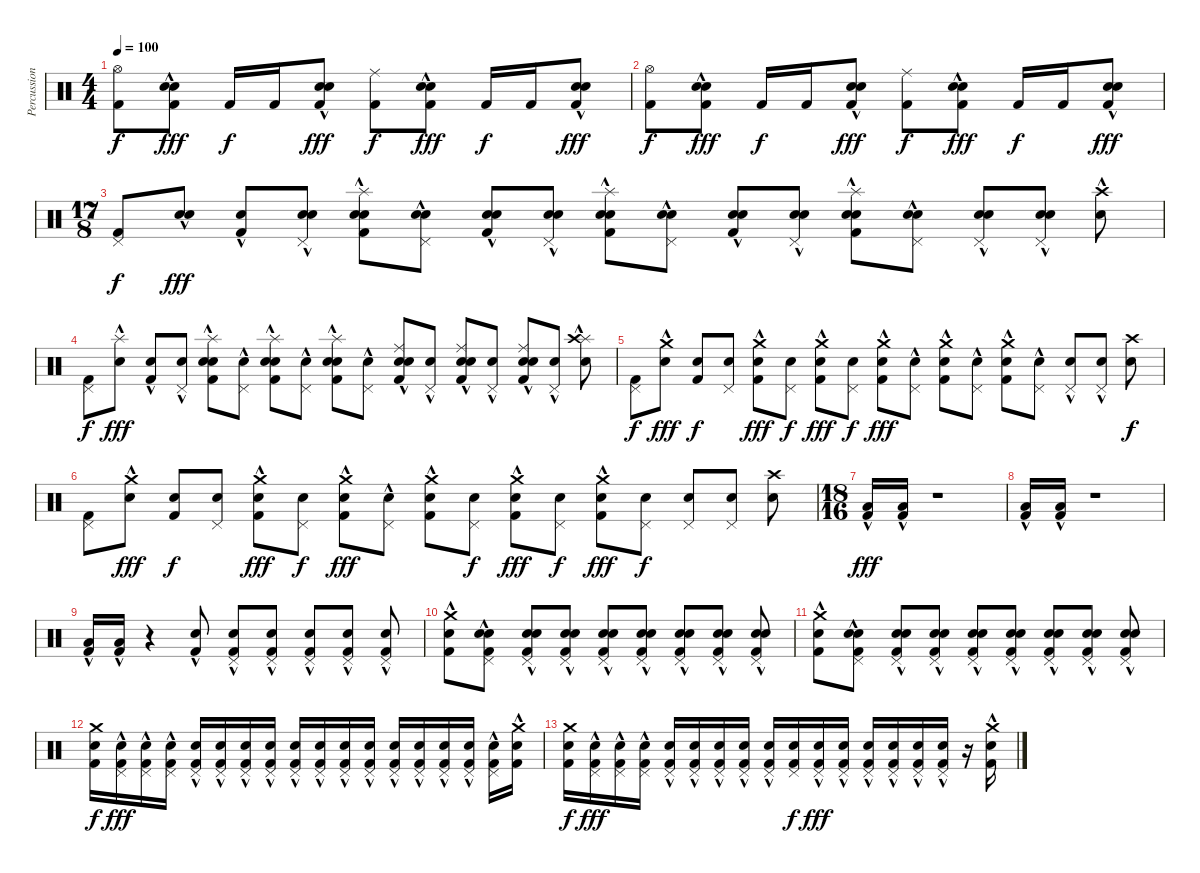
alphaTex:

\track ("Percussion" "Percussion") {instrument percussion}
\staff {score}
\articulation defaults
\ts (4 4)
\tempo 100
\clef neutral
\ks c
("Hi-Hat (open)" "Kick (hit) 2").8{dy f} ("Electric Snare (hit)"{hac} "Snare (hit) 2"{hac} "Kick (hit) 2").8{dy fff} "Kick (hit) 2".16{dy f} "Kick (hit) 2".16 ("Electric Snare (hit)"{hac} "Snare (hit) 2"{hac} "Kick (hit) 2").8{dy fff} ("Ride (middle)" "Kick (hit) 2").8{dy f} ("Electric Snare (hit)"{hac} "Snare (hit) 2"{hac} "Kick (hit) 2").8{dy fff} "Kick (hit) 2".16{dy f} "Kick (hit) 2".16 ("Electric Snare (hit)"{hac} "Snare (hit) 2"{hac} "Kick (hit) 2").8{dy fff} |
("Hi-Hat (open)" "Kick (hit) 2").8{dy f} ("Electric Snare (hit)"{hac} "Snare (hit) 2"{hac} "Kick (hit) 2").8{dy fff} "Kick (hit) 2".16{dy f} "Kick (hit) 2".16 ("Electric Snare (hit)"{hac} "Snare (hit) 2"{hac} "Kick (hit) 2").8{dy fff} ("Ride (middle)" "Kick (hit) 2").8{dy f} ("Electric Snare (hit)"{hac} "Snare (hit) 2"{hac} "Kick (hit) 2").8{dy fff} "Kick (hit) 2".16{dy f} "Kick (hit) 2".16 ("Electric Snare (hit)"{hac} "Snare (hit) 2"{hac} "Kick (hit) 2").8{dy fff} |
\ts (17 8)
("Pedal Hi-Hat (hit)" "Kick (hit) 2").8{dy f} ("Electric Snare (hit)"{hac} "Snare (hit) 2"{hac}).8{dy fff} ("Kick (hit) 2" "Snare (hit) 2"{hac}).8 ("Electric Snare (hit)"{hac} "Pedal Hi-Hat (hit)" "Snare (hit) 2"{hac}).8 ("Electric Snare (hit)"{hac} "Splash (hit)" "Kick (hit) 2" "Snare (hit) 2"{hac}).8 ("Pedal Hi-Hat (hit)" "Electric Snare (hit)"{hac} "Snare (hit) 2"{hac}).8 ("Electric Snare (hit)"{hac} "Kick (hit) 2" "Snare (hit) 2"{hac}).8 ("Pedal Hi-Hat (hit)" "Electric Snare (hit)"{hac} "Snare (hit) 2"{hac}).8 ("Electric Snare (hit)"{hac} "Splash (hit)" "Kick (hit) 2" "Snare (hit) 2"{hac}).8 ("Pedal Hi-Hat (hit)" "Electric Snare (hit)"{hac} "Snare (hit) 2"{hac}).8 ("Electric Snare (hit)"{hac} "Kick (hit) 2" "Snare (hit) 2"{hac}).8 ("Pedal Hi-Hat (hit)" "Electric Snare (hit)"{hac} "Snare (hit) 2"{hac}).8 ("Electric Snare (hit)"{hac} "Splash (hit)" "Kick (hit) 2" "Snare (hit) 2"{hac}).8 ("Pedal Hi-Hat (hit)" "Electric Snare (hit)"{hac} "Snare (hit) 2"{hac}).8 ("Pedal Hi-Hat (hit)" "Electric Snare (hit)" "Snare (hit) 2"{hac}).8 ("Pedal Hi-Hat (hit)" "Electric Snare (hit)"{hac} "Snare (hit) 2"{hac}).8 ("Crash high (hit)" "Snare (hit) 2"{hac}).8 |
("Pedal Hi-Hat (hit)" "Kick (hit) 2").8{dy f} ("Splash (hit)" "Snare (hit) 2"{hac}).8{dy fff} ("Kick (hit) 2" "Snare (hit) 2"{hac}).8 ("Pedal Hi-Hat (hit)" "Snare (hit) 2"{hac}).8 ("Electric Snare (hit)" "Splash (hit)" "Kick (hit) 2" "Snare (hit) 2"{hac}).8 ("Pedal Hi-Hat (hit)" "Snare (hit) 2"{hac}).8 ("Electric Snare (hit)" "Splash (hit)" "Kick (hit) 2" "Snare (hit) 2"{hac}).8 ("Pedal Hi-Hat (hit)" "Snare (hit) 2"{hac}).8 ("Electric Snare (hit)" "Splash (hit)" "Kick (hit) 2" "Snare (hit) 2"{hac}).8 ("Pedal Hi-Hat (hit)" "Snare (hit) 2"{hac}).8 ("Electric Snare (hit)" "Ride (middle)" "Kick (hit) 2" "Snare (hit) 2"{hac}).8 ("Pedal Hi-Hat (hit)" "Snare (hit) 2"{hac}).8 ("Electric Snare (hit)" "Ride (middle)" "Kick (hit) 2" "Snare (hit) 2"{hac}).8 ("Pedal Hi-Hat (hit)" "Snare (hit) 2"{hac}).8 ("Kick (hit) 2" "Ride (middle)" "Electric Snare (hit)" "Snare (hit) 2"{hac}).8 ("Pedal Hi-Hat (hit)" "Snare (hit) 2"{hac}).8 ("Splash (hit)" "Crash high (hit)" "Snare (hit) 2"{hac}).8 |
("Pedal Hi-Hat (hit)" "Kick (hit) 2").8{dy f} ("Crash medium (hit)"{hac} "Snare (hit) 2").8{dy fff} ("Kick (hit) 2" "Snare (hit) 2").8{dy f} ("Pedal Hi-Hat (hit)" "Snare (hit) 2").8 ("Crash medium (hit)"{hac} "Kick (hit) 2" "Snare (hit) 2").8{dy fff} ("Pedal Hi-Hat (hit)" "Snare (hit) 2").8{dy f} ("Crash medium (hit)"{hac} "Kick (hit) 2" "Snare (hit) 2").8{dy fff} ("Pedal Hi-Hat (hit)" "Snare (hit) 2").8{dy f} ("Crash medium (hit)"{hac} "Kick (hit) 2" "Snare (hit) 2").8{dy fff} ("Pedal Hi-Hat (hit)"{hac} "Snare (hit) 2").8 ("Crash medium (hit)"{hac} "Kick (hit) 2" "Snare (hit) 2").8 ("Pedal Hi-Hat (hit)"{hac} "Snare (hit) 2").8 ("Crash medium (hit)"{hac} "Kick (hit) 2" "Snare (hit) 2").8 ("Pedal Hi-Hat (hit)"{hac} "Snare (hit) 2").8 ("Pedal Hi-Hat (hit)"{hac} "Snare (hit) 2").8 ("Pedal Hi-Hat (hit)"{hac} "Snare (hit) 2").8 ("Crash high (hit)" "Snare (hit) 2").8{dy f} |
("Pedal Hi-Hat (hit)" "Kick (hit) 2").8 ("Crash medium (hit)"{hac} "Snare (hit) 2").8{dy fff} ("Kick (hit) 2" "Snare (hit) 2").8{dy f} ("Pedal Hi-Hat (hit)" "Snare (hit) 2").8 ("Crash medium (hit)"{hac} "Kick (hit) 2" "Snare (hit) 2").8{dy fff} ("Pedal Hi-Hat (hit)" "Snare (hit) 2").8{dy f} ("Crash medium (hit)"{hac} "Kick (hit) 2" "Snare (hit) 2").8{dy fff} ("Pedal Hi-Hat (hit)"{hac} "Snare (hit) 2").8 ("Crash medium (hit)"{hac} "Kick (hit) 2" "Snare (hit) 2").8 ("Pedal Hi-Hat (hit)" "Snare (hit) 2").8{dy f} ("Crash medium (hit)"{hac} "Kick (hit) 2" "Snare (hit) 2").8{dy fff} ("Pedal Hi-Hat (hit)" "Snare (hit) 2").8{dy f} ("Crash medium (hit)"{hac} "Kick (hit) 2" "Snare (hit) 2").8{dy fff} ("Pedal Hi-Hat (hit)" "Snare (hit) 2").8{dy f} ("Pedal Hi-Hat (hit)" "Snare (hit) 2").8 ("Pedal Hi-Hat (hit)" "Snare (hit) 2").8 ("Crash high (hit)" "Snare (hit) 2").8 |
\ts (18 16)
("Low Tom (hit)"{hac} "Kick (hit) 2"{hac}).16{dy fff} ("Low Tom (hit)"{hac} "Kick (hit) 2"{hac}).16 r.1 |
("Low Tom (hit)"{hac} "Kick (hit) 2"{hac}).16 ("Low Tom (hit)"{hac} "Kick (hit) 2"{hac}).16 r.1 |
("Low Tom (hit)"{hac} "Kick (hit) 2"{hac}).16 ("Low Tom (hit)"{hac} "Kick (hit) 2"{hac}).16 r.4 ("Snare (hit) 2"{hac} "Kick (hit) 2"{hac}).8 ("Pedal Hi-Hat (hit)"{hac} "Snare (hit) 2"{hac} "Kick (hit) 2"{hac}).8 ("Pedal Hi-Hat (hit)"{hac} "Snare (hit) 2"{hac} "Kick (hit) 2"{hac}).8 ("Pedal Hi-Hat (hit)"{hac} "Snare (hit) 2"{hac} "Kick (hit) 2"{hac}).8 ("Pedal Hi-Hat (hit)"{hac} "Snare (hit) 2"{hac} "Kick (hit) 2"{hac}).8 ("Pedal Hi-Hat (hit)"{hac} "Snare (hit) 2"{hac} "Kick (hit) 2"{hac}).8 |
("Crash medium (hit)" "Electric Snare (hit)"{hac} "Kick (hit) 2").8 ("Electric Snare (hit)"{hac} "Pedal Hi-Hat (hit)" "Snare (hit) 2"{hac} "Kick (hit) 2").8 ("Electric Snare (hit)"{hac} "Pedal Hi-Hat (hit)" "Snare (hit) 2"{hac} "Kick (hit) 2").8 ("Electric Snare (hit)"{hac} "Pedal Hi-Hat (hit)" "Snare (hit) 2"{hac} "Kick (hit) 2").8 ("Electric Snare (hit)"{hac} "Pedal Hi-Hat (hit)" "Snare (hit) 2"{hac} "Kick (hit) 2").8 ("Electric Snare (hit)"{hac} "Pedal Hi-Hat (hit)" "Snare (hit) 2"{hac} "Kick (hit) 2").8 ("Electric Snare (hit)"{hac} "Pedal Hi-Hat (hit)" "Snare (hit) 2"{hac} "Kick (hit) 2").8 ("Electric Snare (hit)"{hac} "Pedal Hi-Hat (hit)" "Snare (hit) 2"{hac} "Kick (hit) 2").8 ("Electric Snare (hit)"{hac} "Pedal Hi-Hat (hit)" "Snare (hit) 2"{hac} "Kick (hit) 2").8 |
("Crash medium (hit)" "Electric Snare (hit)"{hac} "Kick (hit) 2").8 ("Electric Snare (hit)"{hac} "Pedal Hi-Hat (hit)" "Snare (hit) 2"{hac} "Kick (hit) 2").8 ("Electric Snare (hit)"{hac} "Pedal Hi-Hat (hit)" "Snare (hit) 2"{hac} "Kick (hit) 2").8 ("Electric Snare (hit)"{hac} "Pedal Hi-Hat (hit)" "Snare (hit) 2"{hac} "Kick (hit) 2").8 ("Electric Snare (hit)"{hac} "Pedal Hi-Hat (hit)" "Snare (hit) 2"{hac} "Kick (hit) 2").8 ("Electric Snare (hit)"{hac} "Pedal Hi-Hat (hit)" "Snare (hit) 2"{hac} "Kick (hit) 2").8 ("Electric Snare (hit)"{hac} "Pedal Hi-Hat (hit)" "Snare (hit) 2"{hac} "Kick (hit) 2").8 ("Electric Snare (hit)"{hac} "Pedal Hi-Hat (hit)" "Snare (hit) 2"{hac} "Kick (hit) 2").8 ("Electric Snare (hit)"{hac} "Pedal Hi-Hat (hit)" "Snare (hit) 2"{hac} "Kick (hit) 2").8 |
("Crash medium (hit)" "Electric Snare (hit)" "Kick (hit) 2").16{dy f} ("Pedal Hi-Hat (hit)" "Snare (hit) 2"{hac} "Kick (hit) 2").16{dy fff} ("Pedal Hi-Hat (hit)" "Snare (hit) 2"{hac} "Kick (hit) 2").16 ("Pedal Hi-Hat (hit)" "Snare (hit) 2"{hac} "Kick (hit) 2").16 ("Pedal Hi-Hat (hit)" "Snare (hit) 2"{hac} "Kick (hit) 2").16 ("Pedal Hi-Hat (hit)" "Snare (hit) 2"{hac} "Kick (hit) 2").16 ("Pedal Hi-Hat (hit)" "Snare (hit) 2"{hac} "Kick (hit) 2").16 ("Pedal Hi-Hat (hit)" "Snare (hit) 2"{hac} "Kick (hit) 2").16 ("Pedal Hi-Hat (hit)" "Snare (hit) 2"{hac} "Kick (hit) 2").16 ("Pedal Hi-Hat (hit)" "Snare (hit) 2"{hac} "Kick (hit) 2").16 ("Pedal Hi-Hat (hit)" "Snare (hit) 2"{hac} "Kick (hit) 2").16 ("Pedal Hi-Hat (hit)" "Snare (hit) 2"{hac} "Kick (hit) 2").16 ("Pedal Hi-Hat (hit)" "Snare (hit) 2"{hac} "Kick (hit) 2").16 ("Pedal Hi-Hat (hit)" "Snare (hit) 2"{hac} "Kick (hit) 2").16 ("Pedal Hi-Hat (hit)" "Snare (hit) 2"{hac} "Kick (hit) 2").16 ("Pedal Hi-Hat (hit)" "Snare (hit) 2"{hac} "Kick (hit) 2").16 ("Pedal Hi-Hat (hit)" "Snare (hit) 2"{hac} "Kick (hit) 2").16 ("Crash medium (hit)" "Snare (hit) 2"{hac} "Kick (hit) 2").16 |
("Crash medium (hit)" "Electric Snare (hit)" "Kick (hit) 2").16{dy f} ("Pedal Hi-Hat (hit)" "Snare (hit) 2"{hac} "Kick (hit) 2").16{dy fff} ("Pedal Hi-Hat (hit)" "Snare (hit) 2"{hac} "Kick (hit) 2").16 ("Pedal Hi-Hat (hit)" "Snare (hit) 2"{hac} "Kick (hit) 2").16 ("Pedal Hi-Hat (hit)" "Snare (hit) 2"{hac} "Kick (hit) 2").16 ("Pedal Hi-Hat (hit)" "Snare (hit) 2"{hac} "Kick (hit) 2").16 ("Pedal Hi-Hat (hit)" "Snare (hit) 2"{hac} "Kick (hit) 2").16 ("Pedal Hi-Hat (hit)" "Snare (hit) 2"{hac} "Kick (hit) 2").16 ("Pedal Hi-Hat (hit)" "Snare (hit) 2"{hac} "Kick (hit) 2").16 ("Pedal Hi-Hat (hit)" "Snare (hit) 2" "Kick (hit) 2").16{dy f} ("Pedal Hi-Hat (hit)" "Snare (hit) 2"{hac} "Kick (hit) 2").16{dy fff} ("Pedal Hi-Hat (hit)" "Snare (hit) 2"{hac} "Kick (hit) 2").16 ("Pedal Hi-Hat (hit)" "Snare (hit) 2"{hac} "Kick (hit) 2").16 ("Pedal Hi-Hat (hit)" "Snare (hit) 2"{hac} "Kick (hit) 2").16 ("Pedal Hi-Hat (hit)" "Snare (hit) 2"{hac} "Kick (hit) 2").16 ("Pedal Hi-Hat (hit)" "Snare (hit) 2"{hac} "Kick (hit) 2").16 r.16 ("Crash medium (hit)"{hac} "Snare (hit) 2"{hac} "Kick (hit) 2"{hac}).16
